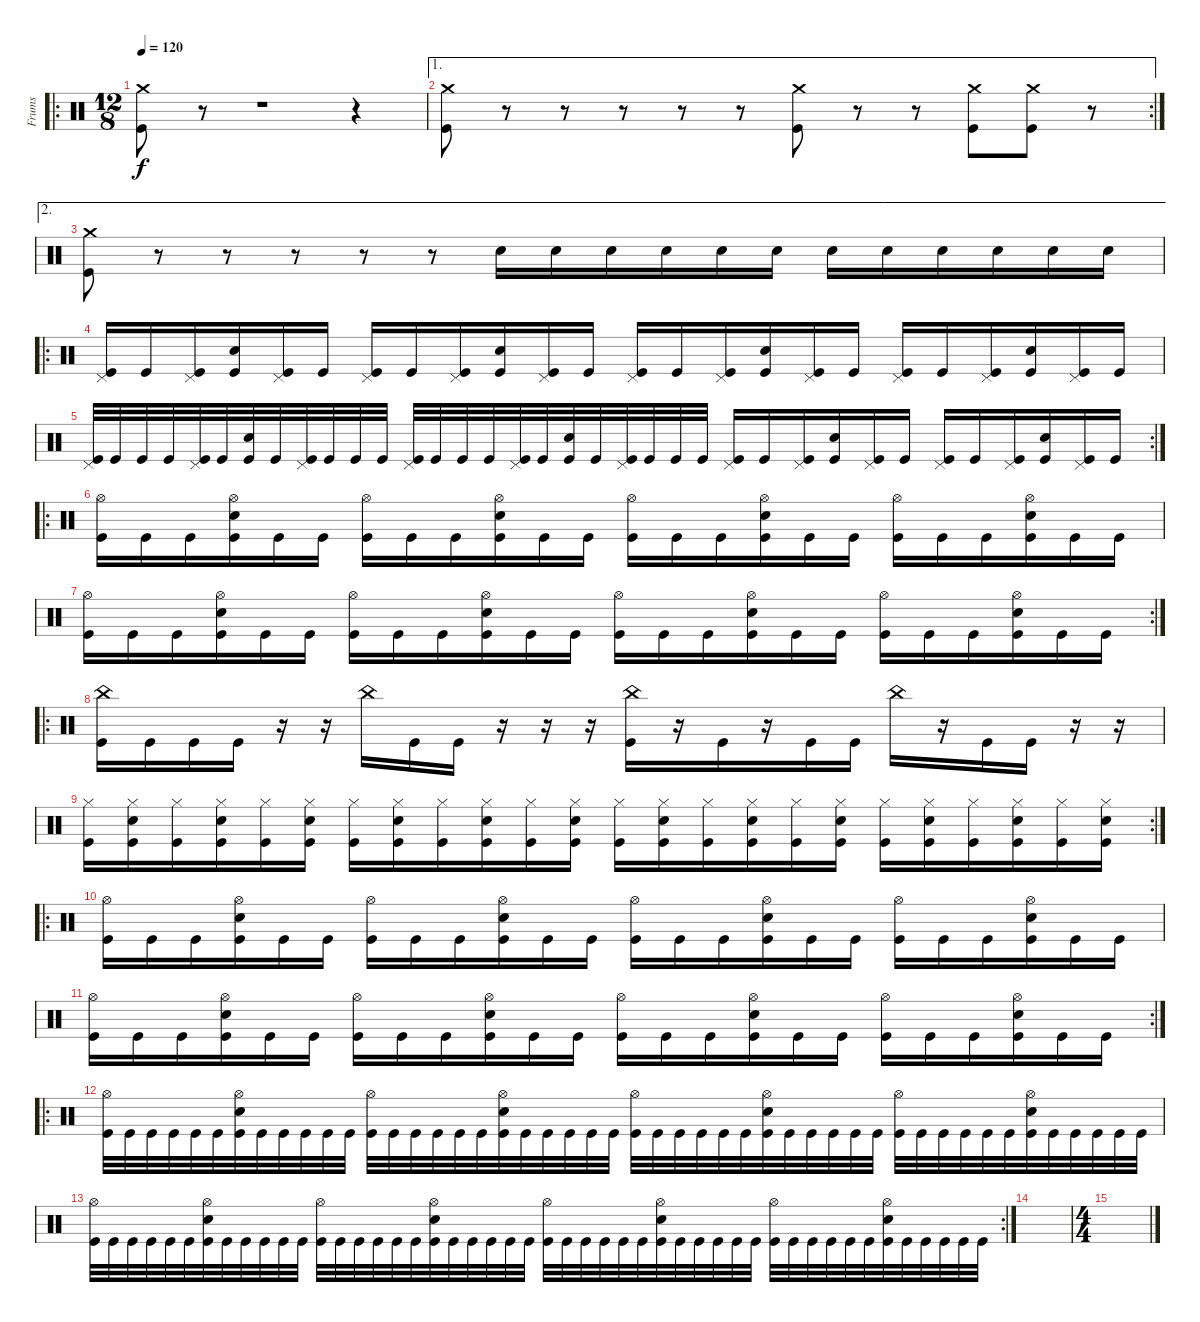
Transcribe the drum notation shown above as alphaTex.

\track ("Frums" "Frums") {instrument percussion}
\staff {score}
\articulation defaults
\ro
\ts (12 8)
\tempo 120
\clef neutral
\ks c
("Crash medium (hit)" "Kick (hit)").8{dy f} r.8 r.1 r.4 |
\ae 1
\rc 2
("Crash medium (hit)" "Kick (hit)").8 r.8 r.8 r.8 r.8 r.8 ("Crash medium (hit)" "Kick (hit)").8 r.8 r.8 ("Crash medium (hit)" "Kick (hit)").8 ("Crash medium (hit)" "Kick (hit)").8 r.8 |
\ae 2
("Crash medium (hit)" "Kick (hit)").8 r.8 r.8 r.8 r.8 r.8 "Snare (hit) 2".16 "Snare (hit) 2".16 "Snare (hit) 2".16 "Snare (hit) 2".16 "Snare (hit) 2".16 "Snare (hit) 2".16 "Snare (hit) 2".16 "Snare (hit) 2".16 "Snare (hit) 2".16 "Snare (hit) 2".16 "Snare (hit) 2".16 "Snare (hit) 2".16 |
\ro
("Pedal Hi-Hat (hit)" "Kick (hit)").16 "Kick (hit)".16 ("Pedal Hi-Hat (hit)" "Kick (hit)").16 ("Snare (hit) 2" "Kick (hit)").16 ("Pedal Hi-Hat (hit)" "Kick (hit)").16 "Kick (hit)".16 ("Pedal Hi-Hat (hit)" "Kick (hit)").16 "Kick (hit)".16 ("Pedal Hi-Hat (hit)" "Kick (hit)").16 ("Snare (hit) 2" "Kick (hit)").16 ("Pedal Hi-Hat (hit)" "Kick (hit)").16 "Kick (hit)".16 ("Pedal Hi-Hat (hit)" "Kick (hit)").16 "Kick (hit)".16 ("Pedal Hi-Hat (hit)" "Kick (hit)").16 ("Snare (hit) 2" "Kick (hit)").16 ("Pedal Hi-Hat (hit)" "Kick (hit)").16 "Kick (hit)".16 ("Pedal Hi-Hat (hit)" "Kick (hit)").16 "Kick (hit)".16 ("Pedal Hi-Hat (hit)" "Kick (hit)").16 ("Snare (hit) 2" "Kick (hit)").16 ("Pedal Hi-Hat (hit)" "Kick (hit)").16 "Kick (hit)".16 |
\rc 2
("Pedal Hi-Hat (hit)" "Kick (hit)").32 "Kick (hit)".32 "Kick (hit)".32 "Kick (hit)".32 ("Pedal Hi-Hat (hit)" "Kick (hit)").32 "Kick (hit)".32 ("Snare (hit) 2" "Kick (hit)").32 "Kick (hit)".32 ("Pedal Hi-Hat (hit)" "Kick (hit)").32 "Kick (hit)".32 "Kick (hit)".32 "Kick (hit)".32 ("Pedal Hi-Hat (hit)" "Kick (hit)").32 "Kick (hit)".32 "Kick (hit)".32 "Kick (hit)".32 ("Pedal Hi-Hat (hit)" "Kick (hit)").32 "Kick (hit)".32 ("Snare (hit) 2" "Kick (hit)").32 "Kick (hit)".32 ("Pedal Hi-Hat (hit)" "Kick (hit)").32 "Kick (hit)".32 "Kick (hit)".32 "Kick (hit)".32 ("Pedal Hi-Hat (hit)" "Kick (hit)").16 "Kick (hit)".16 ("Pedal Hi-Hat (hit)" "Kick (hit)").16 ("Snare (hit) 2" "Kick (hit)").16 ("Pedal Hi-Hat (hit)" "Kick (hit)").16 "Kick (hit)".16 ("Pedal Hi-Hat (hit)" "Kick (hit)").16 "Kick (hit)".16 ("Pedal Hi-Hat (hit)" "Kick (hit)").16 ("Snare (hit) 2" "Kick (hit)").16 ("Pedal Hi-Hat (hit)" "Kick (hit)").16 "Kick (hit)".16 |
\ro
("Hi-Hat (open)" "Kick (hit)").16 "Kick (hit)".16 "Kick (hit)".16 ("Hi-Hat (open)" "Snare (hit) 2" "Kick (hit)").16 "Kick (hit)".16 "Kick (hit)".16 ("Hi-Hat (open)" "Kick (hit)").16 "Kick (hit)".16 "Kick (hit)".16 ("Hi-Hat (open)" "Snare (hit) 2" "Kick (hit)").16 "Kick (hit)".16 "Kick (hit)".16 ("Hi-Hat (open)" "Kick (hit)").16 "Kick (hit)".16 "Kick (hit)".16 ("Hi-Hat (open)" "Snare (hit) 2" "Kick (hit)").16 "Kick (hit)".16 "Kick (hit)".16 ("Hi-Hat (open)" "Kick (hit)").16 "Kick (hit)".16 "Kick (hit)".16 ("Hi-Hat (open)" "Snare (hit) 2" "Kick (hit)").16 "Kick (hit)".16 "Kick (hit)".16 |
\rc 2
("Hi-Hat (open)" "Kick (hit)").16 "Kick (hit)".16 "Kick (hit)".16 ("Hi-Hat (open)" "Snare (hit) 2" "Kick (hit)").16 "Kick (hit)".16 "Kick (hit)".16 ("Hi-Hat (open)" "Kick (hit)").16 "Kick (hit)".16 "Kick (hit)".16 ("Hi-Hat (open)" "Snare (hit) 2" "Kick (hit)").16 "Kick (hit)".16 "Kick (hit)".16 ("Hi-Hat (open)" "Kick (hit)").16 "Kick (hit)".16 "Kick (hit)".16 ("Hi-Hat (open)" "Snare (hit) 2" "Kick (hit)").16 "Kick (hit)".16 "Kick (hit)".16 ("Hi-Hat (open)" "Kick (hit)").16 "Kick (hit)".16 "Kick (hit)".16 ("Hi-Hat (open)" "Snare (hit) 2" "Kick (hit)").16 "Kick (hit)".16 "Kick (hit)".16 |
\ro
("China (hit)" "Kick (hit)").16 "Kick (hit)".16 "Kick (hit)".16 "Kick (hit)".16 r.16 r.16 "China (hit)".16 "Kick (hit)".16 "Kick (hit)".16 r.16 r.16 r.16 ("China (hit)" "Kick (hit)").16 r.16 "Kick (hit)".16 r.16 "Kick (hit)".16 "Kick (hit)".16 "China (hit)".16 r.16 "Kick (hit)".16 "Kick (hit)".16 r.16 r.16 |
\rc 2
("Hi-Hat (closed)" "Kick (hit)").16 ("Hi-Hat (closed)" "Snare (hit) 2" "Kick (hit)").16 ("Hi-Hat (closed)" "Kick (hit)").16 ("Hi-Hat (closed)" "Snare (hit) 2" "Kick (hit)").16 ("Hi-Hat (closed)" "Kick (hit)").16 ("Hi-Hat (closed)" "Snare (hit) 2" "Kick (hit)").16 ("Hi-Hat (closed)" "Kick (hit)").16 ("Hi-Hat (closed)" "Snare (hit) 2" "Kick (hit)").16 ("Hi-Hat (closed)" "Kick (hit)").16 ("Hi-Hat (closed)" "Snare (hit) 2" "Kick (hit)").16 ("Hi-Hat (closed)" "Kick (hit)").16 ("Hi-Hat (closed)" "Snare (hit) 2" "Kick (hit)").16 ("Hi-Hat (closed)" "Kick (hit)").16 ("Hi-Hat (closed)" "Snare (hit) 2" "Kick (hit)").16 ("Hi-Hat (closed)" "Kick (hit)").16 ("Hi-Hat (closed)" "Snare (hit) 2" "Kick (hit)").16 ("Hi-Hat (closed)" "Kick (hit)").16 ("Hi-Hat (closed)" "Snare (hit) 2" "Kick (hit)").16 ("Hi-Hat (closed)" "Kick (hit)").16 ("Hi-Hat (closed)" "Snare (hit) 2" "Kick (hit)").16 ("Hi-Hat (closed)" "Kick (hit)").16 ("Hi-Hat (closed)" "Snare (hit) 2" "Kick (hit)").16 ("Hi-Hat (closed)" "Kick (hit)").16 ("Hi-Hat (closed)" "Snare (hit) 2" "Kick (hit)").16 |
\ro
("Hi-Hat (open)" "Kick (hit)").16 "Kick (hit)".16 "Kick (hit)".16 ("Hi-Hat (open)" "Snare (hit) 2" "Kick (hit)").16 "Kick (hit)".16 "Kick (hit)".16 ("Hi-Hat (open)" "Kick (hit)").16 "Kick (hit)".16 "Kick (hit)".16 ("Hi-Hat (open)" "Snare (hit) 2" "Kick (hit)").16 "Kick (hit)".16 "Kick (hit)".16 ("Hi-Hat (open)" "Kick (hit)").16 "Kick (hit)".16 "Kick (hit)".16 ("Hi-Hat (open)" "Snare (hit) 2" "Kick (hit)").16 "Kick (hit)".16 "Kick (hit)".16 ("Hi-Hat (open)" "Kick (hit)").16 "Kick (hit)".16 "Kick (hit)".16 ("Hi-Hat (open)" "Snare (hit) 2" "Kick (hit)").16 "Kick (hit)".16 "Kick (hit)".16 |
\rc 2
("Hi-Hat (open)" "Kick (hit)").16 "Kick (hit)".16 "Kick (hit)".16 ("Hi-Hat (open)" "Snare (hit) 2" "Kick (hit)").16 "Kick (hit)".16 "Kick (hit)".16 ("Hi-Hat (open)" "Kick (hit)").16 "Kick (hit)".16 "Kick (hit)".16 ("Hi-Hat (open)" "Snare (hit) 2" "Kick (hit)").16 "Kick (hit)".16 "Kick (hit)".16 ("Hi-Hat (open)" "Kick (hit)").16 "Kick (hit)".16 "Kick (hit)".16 ("Hi-Hat (open)" "Snare (hit) 2" "Kick (hit)").16 "Kick (hit)".16 "Kick (hit)".16 ("Hi-Hat (open)" "Kick (hit)").16 "Kick (hit)".16 "Kick (hit)".16 ("Hi-Hat (open)" "Snare (hit) 2" "Kick (hit)").16 "Kick (hit)".16 "Kick (hit)".16 |
\ro
("Hi-Hat (open)" "Kick (hit)").32 "Kick (hit)".32 "Kick (hit)".32 "Kick (hit)".32 "Kick (hit)".32 "Kick (hit)".32 ("Hi-Hat (open)" "Snare (hit) 2" "Kick (hit)").32 "Kick (hit)".32 "Kick (hit)".32 "Kick (hit)".32 "Kick (hit)".32 "Kick (hit)".32 ("Hi-Hat (open)" "Kick (hit)").32 "Kick (hit)".32 "Kick (hit)".32 "Kick (hit)".32 "Kick (hit)".32 "Kick (hit)".32 ("Hi-Hat (open)" "Snare (hit) 2" "Kick (hit)").32 "Kick (hit)".32 "Kick (hit)".32 "Kick (hit)".32 "Kick (hit)".32 "Kick (hit)".32 ("Hi-Hat (open)" "Kick (hit)").32 "Kick (hit)".32 "Kick (hit)".32 "Kick (hit)".32 "Kick (hit)".32 "Kick (hit)".32 ("Hi-Hat (open)" "Snare (hit) 2" "Kick (hit)").32 "Kick (hit)".32 "Kick (hit)".32 "Kick (hit)".32 "Kick (hit)".32 "Kick (hit)".32 ("Hi-Hat (open)" "Kick (hit)").32 "Kick (hit)".32 "Kick (hit)".32 "Kick (hit)".32 "Kick (hit)".32 "Kick (hit)".32 ("Hi-Hat (open)" "Snare (hit) 2" "Kick (hit)").32 "Kick (hit)".32 "Kick (hit)".32 "Kick (hit)".32 "Kick (hit)".32 "Kick (hit)".32 |
\rc 2
("Hi-Hat (open)" "Kick (hit)").32 "Kick (hit)".32 "Kick (hit)".32 "Kick (hit)".32 "Kick (hit)".32 "Kick (hit)".32 ("Hi-Hat (open)" "Snare (hit) 2" "Kick (hit)").32 "Kick (hit)".32 "Kick (hit)".32 "Kick (hit)".32 "Kick (hit)".32 "Kick (hit)".32 ("Hi-Hat (open)" "Kick (hit)").32 "Kick (hit)".32 "Kick (hit)".32 "Kick (hit)".32 "Kick (hit)".32 "Kick (hit)".32 ("Hi-Hat (open)" "Snare (hit) 2" "Kick (hit)").32 "Kick (hit)".32 "Kick (hit)".32 "Kick (hit)".32 "Kick (hit)".32 "Kick (hit)".32 ("Hi-Hat (open)" "Kick (hit)").32 "Kick (hit)".32 "Kick (hit)".32 "Kick (hit)".32 "Kick (hit)".32 "Kick (hit)".32 ("Hi-Hat (open)" "Snare (hit) 2" "Kick (hit)").32 "Kick (hit)".32 "Kick (hit)".32 "Kick (hit)".32 "Kick (hit)".32 "Kick (hit)".32 ("Hi-Hat (open)" "Kick (hit)").32 "Kick (hit)".32 "Kick (hit)".32 "Kick (hit)".32 "Kick (hit)".32 "Kick (hit)".32 ("Hi-Hat (open)" "Snare (hit) 2" "Kick (hit)").32 "Kick (hit)".32 "Kick (hit)".32 "Kick (hit)".32 "Kick (hit)".32 "Kick (hit)".32 |
|
\ts (4 4)
